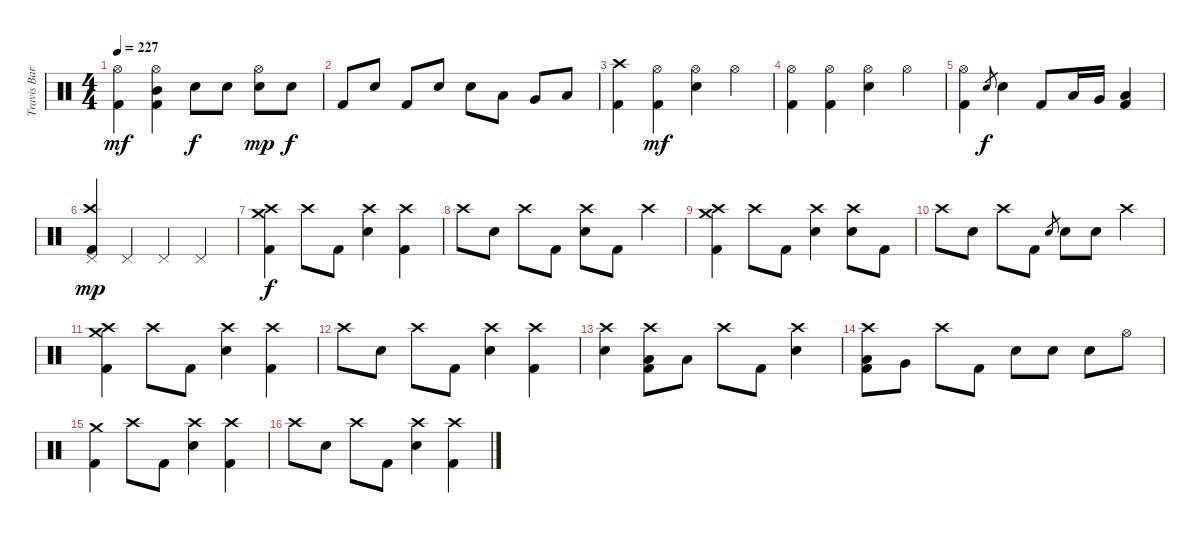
\track ("Travis Barker - Drum" "Travis Bar") {instrument percussion}
\staff {score}
\articulation defaults
\ts (4 4)
\tempo 227
\clef neutral
\ks c
("Hi-Hat (open)" "Kick (hit) 2").4{dy mf} ("Hi-Hat (open)" "Mid Tom (hit)" "Kick (hit) 2").4 "Electric Snare (hit)".8{dy f} "Electric Snare (hit)".8 ("Hi-Hat (open)" "Electric Snare (hit)").8{dy mp} "Electric Snare (hit)".8{dy f} |
"Kick (hit) 2".8 "Electric Snare (hit)".8 "Kick (hit) 2".8 "Electric Snare (hit)".8 "Electric Snare (hit)".8 "Low Tom (hit)".8 "Very Low Tom (hit)".8 "Low Floor Tom (hit)".8 |
("Crash high (hit)" "Kick (hit) 2").4 ("Hi-Hat (open)" "Kick (hit) 2").4{dy mf} ("Hi-Hat (open)" "Electric Snare (hit)").4 "Hi-Hat (open)".4 |
("Hi-Hat (open)" "Kick (hit) 2").4 ("Hi-Hat (open)" "Kick (hit) 2").4 ("Hi-Hat (open)" "Electric Snare (hit)").4 "Hi-Hat (open)".4 |
("Hi-Hat (open)" "Kick (hit) 2").4 "Electric Snare (hit)".8{gr dy f} "Electric Snare (hit)".4 "Kick (hit) 2".8 "Low Tom (hit)".16 "Very Low Tom (hit)".16 ("Low Floor Tom (hit)" "Kick (hit) 2").4 |
("Crash high (hit)" "Kick (hit) 2" "Pedal Hi-Hat (hit)").4{dy mp} "Pedal Hi-Hat (hit)".4 "Pedal Hi-Hat (hit)".4 "Pedal Hi-Hat (hit)".4 |
("Crash medium (hit)" "Crash high (hit)" "Kick (hit) 2").4{dy f} "Crash high (hit)".8 "Kick (hit) 2".8 ("Crash high (hit)" "Electric Snare (hit)").4 ("Crash high (hit)" "Kick (hit) 2").4 |
"Crash high (hit)".8 "Electric Snare (hit)".8 "Crash high (hit)".8 "Kick (hit) 2".8 ("Crash high (hit)" "Electric Snare (hit)").8 "Kick (hit) 2".8 "Crash high (hit)".4 |
("Crash medium (hit)" "Crash high (hit)" "Kick (hit) 2").4 "Crash high (hit)".8 "Kick (hit) 2".8 ("Crash high (hit)" "Electric Snare (hit)").4 ("Crash high (hit)" "Electric Snare (hit)").8 "Kick (hit) 2".8 |
"Crash high (hit)".8 "Electric Snare (hit)".8 "Crash high (hit)".8 "Kick (hit) 2".8 "Electric Snare (hit)".8{gr} "Electric Snare (hit)".8 "Electric Snare (hit)".8 "Crash high (hit)".4 |
("Crash medium (hit)" "Crash high (hit)" "Kick (hit) 2").4 "Crash high (hit)".8 "Kick (hit) 2".8 ("Crash high (hit)" "Electric Snare (hit)").4 ("Crash high (hit)" "Kick (hit) 2").4 |
"Crash high (hit)".8 "Electric Snare (hit)".8 "Crash high (hit)".8 "Kick (hit) 2".8 ("Crash high (hit)" "Electric Snare (hit)").4 ("Crash high (hit)" "Kick (hit) 2").4 |
("Crash high (hit)" "Electric Snare (hit)").4 ("Crash high (hit)" "Low Tom (hit)" "Kick (hit) 2").8 "Low Tom (hit)".8 "Crash high (hit)".8 "Kick (hit) 2".8 ("Crash high (hit)" "Electric Snare (hit)").4 |
("Crash high (hit)" "Low Tom (hit)" "Kick (hit) 2").8 "Very Low Tom (hit)".8 "Crash high (hit)".8 "Kick (hit) 2".8 "Electric Snare (hit)".8 "Electric Snare (hit)".8 "Electric Snare (hit)".8 "Hi-Hat (open)".8 |
("Crash medium (hit)" "Kick (hit) 2").4 "Crash high (hit)".8 "Kick (hit) 2".8 ("Crash high (hit)" "Electric Snare (hit)").4 ("Crash high (hit)" "Kick (hit) 2").4 |
"Crash high (hit)".8 "Electric Snare (hit)".8 "Crash high (hit)".8 "Kick (hit) 2".8 ("Crash high (hit)" "Electric Snare (hit)").4 ("Crash high (hit)" "Kick (hit) 2").4
